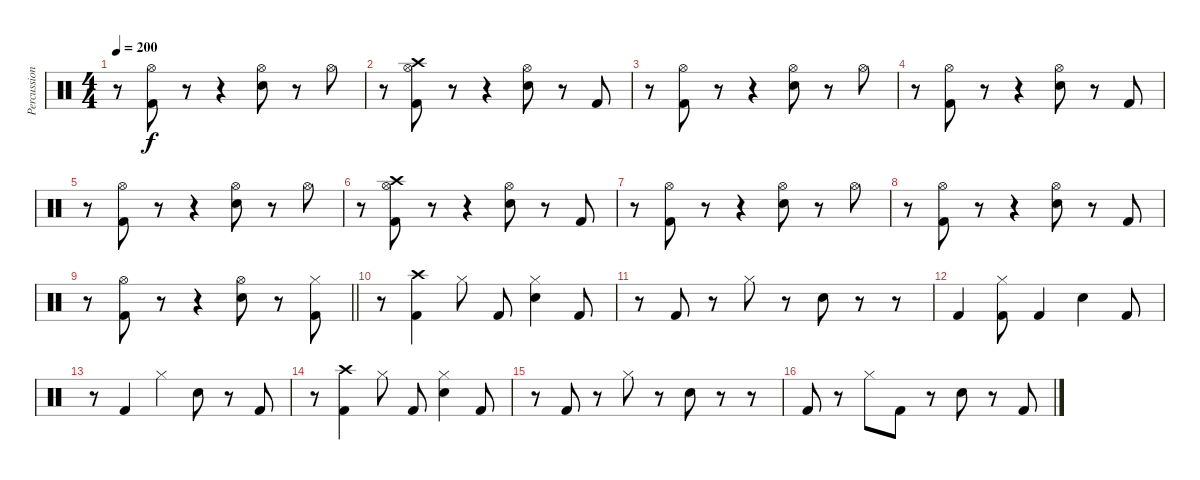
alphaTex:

\track ("Percussion" "Percussion") {instrument percussion}
\staff {score}
\articulation defaults
\ts (4 4)
\tempo 200
\clef neutral
\ks c
r.8{dy f} ("Kick (hit) 2" "Hi-Hat (open)").8 r.8 r.4 ("Snare (hit) 2" "Hi-Hat (open)").8 r.8 "Hi-Hat (open)".8 |
r.8 ("Kick (hit) 2" "Hi-Hat (open)" "Crash high (hit)").8 r.8 r.4 ("Snare (hit) 2" "Hi-Hat (open)").8 r.8 "Kick (hit) 2".8 |
r.8 ("Kick (hit) 2" "Hi-Hat (open)").8 r.8 r.4 ("Snare (hit) 2" "Hi-Hat (open)").8 r.8 "Hi-Hat (open)".8 |
r.8 ("Kick (hit) 2" "Hi-Hat (open)").8 r.8 r.4 ("Snare (hit) 2" "Hi-Hat (open)").8 r.8 "Kick (hit) 2".8 |
r.8 ("Kick (hit) 2" "Hi-Hat (open)").8 r.8 r.4 ("Snare (hit) 2" "Hi-Hat (open)").8 r.8 "Hi-Hat (open)".8 |
r.8 ("Kick (hit) 2" "Hi-Hat (open)" "Crash high (hit)").8 r.8 r.4 ("Snare (hit) 2" "Hi-Hat (open)").8 r.8 "Kick (hit) 2".8 |
r.8 ("Kick (hit) 2" "Hi-Hat (open)").8 r.8 r.4 ("Snare (hit) 2" "Hi-Hat (open)").8 r.8 "Hi-Hat (open)".8 |
r.8 ("Kick (hit) 2" "Hi-Hat (open)").8 r.8 r.4 ("Snare (hit) 2" "Hi-Hat (open)").8 r.8 "Kick (hit) 2".8 |
\barLineRight lightlight
r.8 ("Kick (hit) 2" "Hi-Hat (open)").8 r.8 r.4 ("Snare (hit) 2" "Hi-Hat (open)").8 r.8 ("Kick (hit) 2" "Hi-Hat (closed)").8 |
r.8 ("Kick (hit) 2" "Crash high (hit)").4 "Hi-Hat (closed)".8 "Kick (hit) 2".8 ("Snare (hit) 2" "Hi-Hat (closed)").4 "Kick (hit) 2".8 |
r.8 "Kick (hit) 2".8 r.8 "Hi-Hat (closed)".8 r.8 "Snare (hit) 2".8 r.8 r.8 |
"Kick (hit) 2".4 ("Kick (hit) 2" "Hi-Hat (closed)").8 "Kick (hit) 2".4 "Snare (hit) 2".4 "Kick (hit) 2".8 |
r.8 "Kick (hit) 2".4 "Hi-Hat (closed)".4 "Snare (hit) 2".8 r.8 "Kick (hit) 2".8 |
r.8 ("Kick (hit) 2" "Crash high (hit)").4 "Hi-Hat (closed)".8 "Kick (hit) 2".8 ("Snare (hit) 2" "Hi-Hat (closed)").4 "Kick (hit) 2".8 |
r.8 "Kick (hit) 2".8 r.8 "Hi-Hat (closed)".8 r.8 "Snare (hit) 2".8 r.8 r.8 |
"Kick (hit) 2".8 r.8 "Hi-Hat (closed)".8 "Kick (hit) 2".8 r.8 "Snare (hit) 2".8 r.8 "Kick (hit) 2".8
